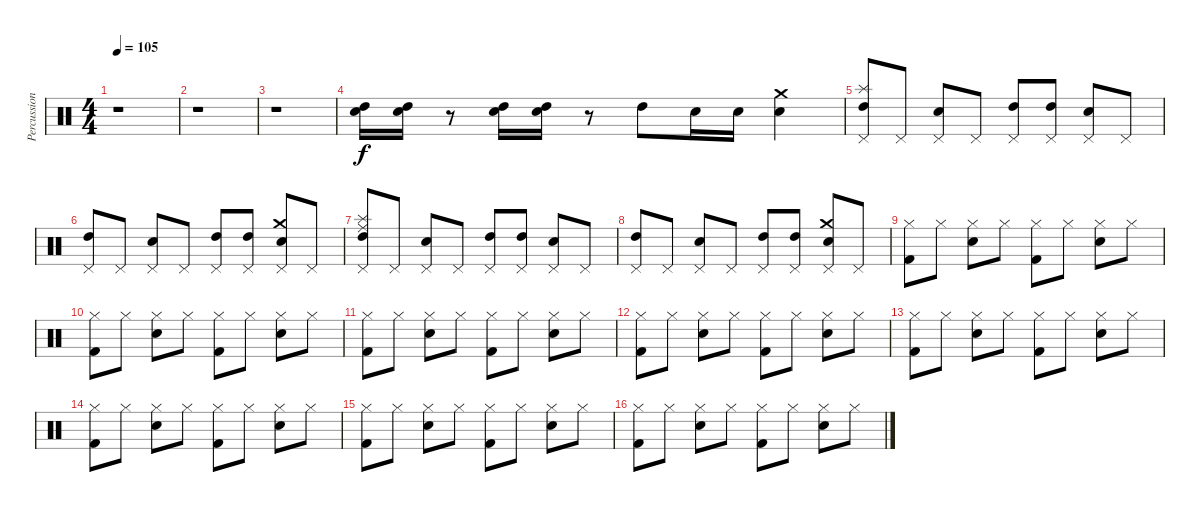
\track ("Percussions" "Percussion") {instrument percussion}
\staff {score}
\articulation defaults
\ts (4 4)
\tempo 105
\clef neutral
\ks c
r.1{dy f} |
r.1 |
r.1 |
("High Tom (hit)" "Electric Snare (hit)").16 ("High Tom (hit)" "Electric Snare (hit)").16 r.8 ("High Tom (hit)" "Electric Snare (hit)").16 ("High Tom (hit)" "Electric Snare (hit)").16 r.8 "High Tom (hit)".8 "Electric Snare (hit)".16 "Electric Snare (hit)".16 ("Crash medium (hit)" "Electric Snare (hit)").4 |
("High Tom (hit)" "Splash (hit)" "Pedal Hi-Hat (hit)").8 "Pedal Hi-Hat (hit)".8 ("Electric Snare (hit)" "Pedal Hi-Hat (hit)").8 "Pedal Hi-Hat (hit)".8 ("High Tom (hit)" "Pedal Hi-Hat (hit)").8 ("High Tom (hit)" "Pedal Hi-Hat (hit)").8 ("Electric Snare (hit)" "Pedal Hi-Hat (hit)").8 "Pedal Hi-Hat (hit)".8 |
("High Tom (hit)" "Pedal Hi-Hat (hit)").8 "Pedal Hi-Hat (hit)".8 ("Electric Snare (hit)" "Pedal Hi-Hat (hit)").8 "Pedal Hi-Hat (hit)".8 ("High Tom (hit)" "Pedal Hi-Hat (hit)").8 ("High Tom (hit)" "Pedal Hi-Hat (hit)").8 ("Electric Snare (hit)" "Crash medium (hit)" "Pedal Hi-Hat (hit)").8 "Pedal Hi-Hat (hit)".8 |
("High Tom (hit)" "Splash (hit)" "Ride (middle)" "Pedal Hi-Hat (hit)").8 "Pedal Hi-Hat (hit)".8 ("Electric Snare (hit)" "Pedal Hi-Hat (hit)").8 "Pedal Hi-Hat (hit)".8 ("High Tom (hit)" "Pedal Hi-Hat (hit)").8 ("High Tom (hit)" "Pedal Hi-Hat (hit)").8 ("Electric Snare (hit)" "Pedal Hi-Hat (hit)").8 "Pedal Hi-Hat (hit)".8 |
("High Tom (hit)" "Pedal Hi-Hat (hit)").8 "Pedal Hi-Hat (hit)".8 ("Electric Snare (hit)" "Pedal Hi-Hat (hit)").8 "Pedal Hi-Hat (hit)".8 ("High Tom (hit)" "Pedal Hi-Hat (hit)").8 ("High Tom (hit)" "Pedal Hi-Hat (hit)").8 ("Electric Snare (hit)" "Crash medium (hit)" "Pedal Hi-Hat (hit)").8 "Pedal Hi-Hat (hit)".8 |
("Hi-Hat (closed)" "Kick (hit) 2").8 "Hi-Hat (closed)".8 ("Hi-Hat (closed)" "Electric Snare (hit)").8 "Hi-Hat (closed)".8 ("Hi-Hat (closed)" "Kick (hit) 2").8 "Hi-Hat (closed)".8 ("Hi-Hat (closed)" "Electric Snare (hit)").8 "Hi-Hat (closed)".8 |
("Hi-Hat (closed)" "Kick (hit) 2").8 "Hi-Hat (closed)".8 ("Hi-Hat (closed)" "Electric Snare (hit)").8 "Hi-Hat (closed)".8 ("Hi-Hat (closed)" "Kick (hit) 2").8 "Hi-Hat (closed)".8 ("Hi-Hat (closed)" "Electric Snare (hit)").8 "Hi-Hat (closed)".8 |
("Hi-Hat (closed)" "Kick (hit) 2").8 "Hi-Hat (closed)".8 ("Hi-Hat (closed)" "Electric Snare (hit)").8 "Hi-Hat (closed)".8 ("Hi-Hat (closed)" "Kick (hit) 2").8 "Hi-Hat (closed)".8 ("Hi-Hat (closed)" "Electric Snare (hit)").8 "Hi-Hat (closed)".8 |
("Hi-Hat (closed)" "Kick (hit) 2").8 "Hi-Hat (closed)".8 ("Hi-Hat (closed)" "Electric Snare (hit)").8 "Hi-Hat (closed)".8 ("Hi-Hat (closed)" "Kick (hit) 2").8 "Hi-Hat (closed)".8 ("Hi-Hat (closed)" "Electric Snare (hit)").8 "Hi-Hat (closed)".8 |
("Hi-Hat (closed)" "Kick (hit) 2").8 "Hi-Hat (closed)".8 ("Hi-Hat (closed)" "Electric Snare (hit)").8 "Hi-Hat (closed)".8 ("Hi-Hat (closed)" "Kick (hit) 2").8 "Hi-Hat (closed)".8 ("Hi-Hat (closed)" "Electric Snare (hit)").8 "Hi-Hat (closed)".8 |
("Hi-Hat (closed)" "Kick (hit) 2").8 "Hi-Hat (closed)".8 ("Hi-Hat (closed)" "Electric Snare (hit)").8 "Hi-Hat (closed)".8 ("Hi-Hat (closed)" "Kick (hit) 2").8 "Hi-Hat (closed)".8 ("Hi-Hat (closed)" "Electric Snare (hit)").8 "Hi-Hat (closed)".8 |
("Hi-Hat (closed)" "Kick (hit) 2").8 "Hi-Hat (closed)".8 ("Hi-Hat (closed)" "Electric Snare (hit)").8 "Hi-Hat (closed)".8 ("Hi-Hat (closed)" "Kick (hit) 2").8 "Hi-Hat (closed)".8 ("Hi-Hat (closed)" "Electric Snare (hit)").8 "Hi-Hat (closed)".8 |
("Hi-Hat (closed)" "Kick (hit) 2").8 "Hi-Hat (closed)".8 ("Hi-Hat (closed)" "Electric Snare (hit)").8 "Hi-Hat (closed)".8 ("Hi-Hat (closed)" "Kick (hit) 2").8 "Hi-Hat (closed)".8 ("Hi-Hat (closed)" "Electric Snare (hit)").8 "Hi-Hat (closed)".8
